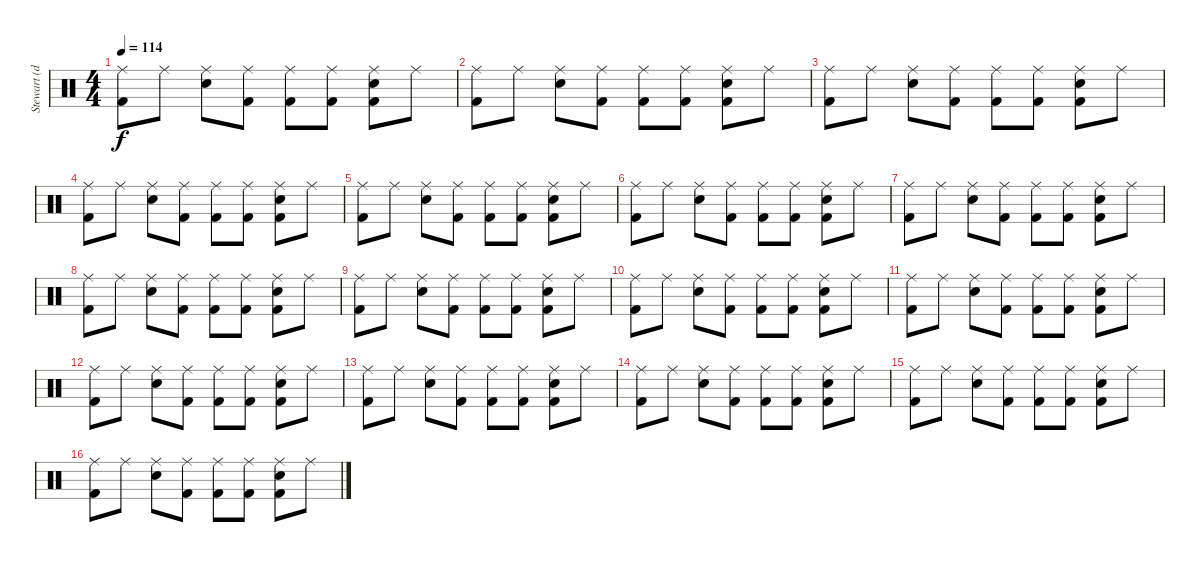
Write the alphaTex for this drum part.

\track ("Stewart (drums)" "Stewart (d") {instrument percussion}
\staff {score}
\articulation defaults
\ts (4 4)
\tempo 114
\clef neutral
\ks c
("Ride (middle)" "Kick (hit) 2").8{dy f} "Ride (middle)".8 ("Ride (middle)" "Snare (hit) 2").8 ("Ride (middle)" "Kick (hit) 2").8 ("Ride (middle)" "Kick (hit) 2").8 ("Ride (middle)" "Kick (hit) 2").8 ("Ride (middle)" "Kick (hit) 2" "Snare (hit) 2").8 "Ride (middle)".8 |
("Ride (middle)" "Kick (hit) 2").8 "Ride (middle)".8 ("Ride (middle)" "Snare (hit) 2").8 ("Ride (middle)" "Kick (hit) 2").8 ("Ride (middle)" "Kick (hit) 2").8 ("Ride (middle)" "Kick (hit) 2").8 ("Ride (middle)" "Kick (hit) 2" "Snare (hit) 2").8 "Ride (middle)".8 |
("Ride (middle)" "Kick (hit) 2").8 "Ride (middle)".8 ("Ride (middle)" "Snare (hit) 2").8 ("Ride (middle)" "Kick (hit) 2").8 ("Ride (middle)" "Kick (hit) 2").8 ("Ride (middle)" "Kick (hit) 2").8 ("Ride (middle)" "Kick (hit) 2" "Snare (hit) 2").8 "Ride (middle)".8 |
("Ride (middle)" "Kick (hit) 2").8 "Ride (middle)".8 ("Ride (middle)" "Snare (hit) 2").8 ("Ride (middle)" "Kick (hit) 2").8 ("Ride (middle)" "Kick (hit) 2").8 ("Ride (middle)" "Kick (hit) 2").8 ("Ride (middle)" "Kick (hit) 2" "Snare (hit) 2").8 "Ride (middle)".8 |
("Ride (middle)" "Kick (hit) 2").8 "Ride (middle)".8 ("Ride (middle)" "Snare (hit) 2").8 ("Ride (middle)" "Kick (hit) 2").8 ("Ride (middle)" "Kick (hit) 2").8 ("Ride (middle)" "Kick (hit) 2").8 ("Ride (middle)" "Kick (hit) 2" "Snare (hit) 2").8 "Ride (middle)".8 |
("Ride (middle)" "Kick (hit) 2").8 "Ride (middle)".8 ("Ride (middle)" "Snare (hit) 2").8 ("Ride (middle)" "Kick (hit) 2").8 ("Ride (middle)" "Kick (hit) 2").8 ("Ride (middle)" "Kick (hit) 2").8 ("Ride (middle)" "Kick (hit) 2" "Snare (hit) 2").8 "Ride (middle)".8 |
("Ride (middle)" "Kick (hit) 2").8 "Ride (middle)".8 ("Ride (middle)" "Snare (hit) 2").8 ("Ride (middle)" "Kick (hit) 2").8 ("Ride (middle)" "Kick (hit) 2").8 ("Ride (middle)" "Kick (hit) 2").8 ("Ride (middle)" "Kick (hit) 2" "Snare (hit) 2").8 "Ride (middle)".8 |
("Ride (middle)" "Kick (hit) 2").8 "Ride (middle)".8 ("Ride (middle)" "Snare (hit) 2").8 ("Ride (middle)" "Kick (hit) 2").8 ("Ride (middle)" "Kick (hit) 2").8 ("Ride (middle)" "Kick (hit) 2").8 ("Ride (middle)" "Kick (hit) 2" "Snare (hit) 2").8 "Ride (middle)".8 |
("Ride (middle)" "Kick (hit) 2").8 "Ride (middle)".8 ("Ride (middle)" "Snare (hit) 2").8 ("Ride (middle)" "Kick (hit) 2").8 ("Ride (middle)" "Kick (hit) 2").8 ("Ride (middle)" "Kick (hit) 2").8 ("Ride (middle)" "Kick (hit) 2" "Snare (hit) 2").8 "Ride (middle)".8 |
("Ride (middle)" "Kick (hit) 2").8{volume 6} "Ride (middle)".8 ("Ride (middle)" "Snare (hit) 2").8 ("Ride (middle)" "Kick (hit) 2").8 ("Ride (middle)" "Kick (hit) 2").8 ("Ride (middle)" "Kick (hit) 2").8 ("Ride (middle)" "Kick (hit) 2" "Snare (hit) 2").8 "Ride (middle)".8 |
("Ride (middle)" "Kick (hit) 2").8 "Ride (middle)".8 ("Ride (middle)" "Snare (hit) 2").8 ("Ride (middle)" "Kick (hit) 2").8 ("Ride (middle)" "Kick (hit) 2").8 ("Ride (middle)" "Kick (hit) 2").8 ("Ride (middle)" "Kick (hit) 2" "Snare (hit) 2").8 "Ride (middle)".8 |
("Ride (middle)" "Kick (hit) 2").8 "Ride (middle)".8 ("Ride (middle)" "Snare (hit) 2").8 ("Ride (middle)" "Kick (hit) 2").8 ("Ride (middle)" "Kick (hit) 2").8 ("Ride (middle)" "Kick (hit) 2").8 ("Ride (middle)" "Kick (hit) 2" "Snare (hit) 2").8 "Ride (middle)".8 |
("Ride (middle)" "Kick (hit) 2").8 "Ride (middle)".8 ("Ride (middle)" "Snare (hit) 2").8 ("Ride (middle)" "Kick (hit) 2").8 ("Ride (middle)" "Kick (hit) 2").8 ("Ride (middle)" "Kick (hit) 2").8 ("Ride (middle)" "Kick (hit) 2" "Snare (hit) 2").8 "Ride (middle)".8 |
("Ride (middle)" "Kick (hit) 2").8 "Ride (middle)".8 ("Ride (middle)" "Snare (hit) 2").8 ("Ride (middle)" "Kick (hit) 2").8 ("Ride (middle)" "Kick (hit) 2").8 ("Ride (middle)" "Kick (hit) 2").8 ("Ride (middle)" "Kick (hit) 2" "Snare (hit) 2").8 "Ride (middle)".8 |
("Ride (middle)" "Kick (hit) 2").8 "Ride (middle)".8 ("Ride (middle)" "Snare (hit) 2").8 ("Ride (middle)" "Kick (hit) 2").8 ("Ride (middle)" "Kick (hit) 2").8 ("Ride (middle)" "Kick (hit) 2").8 ("Ride (middle)" "Kick (hit) 2" "Snare (hit) 2").8 "Ride (middle)".8 |
("Ride (middle)" "Kick (hit) 2").8 "Ride (middle)".8 ("Ride (middle)" "Snare (hit) 2").8 ("Ride (middle)" "Kick (hit) 2").8 ("Ride (middle)" "Kick (hit) 2").8 ("Ride (middle)" "Kick (hit) 2").8 ("Ride (middle)" "Kick (hit) 2" "Snare (hit) 2").8 "Ride (middle)".8
